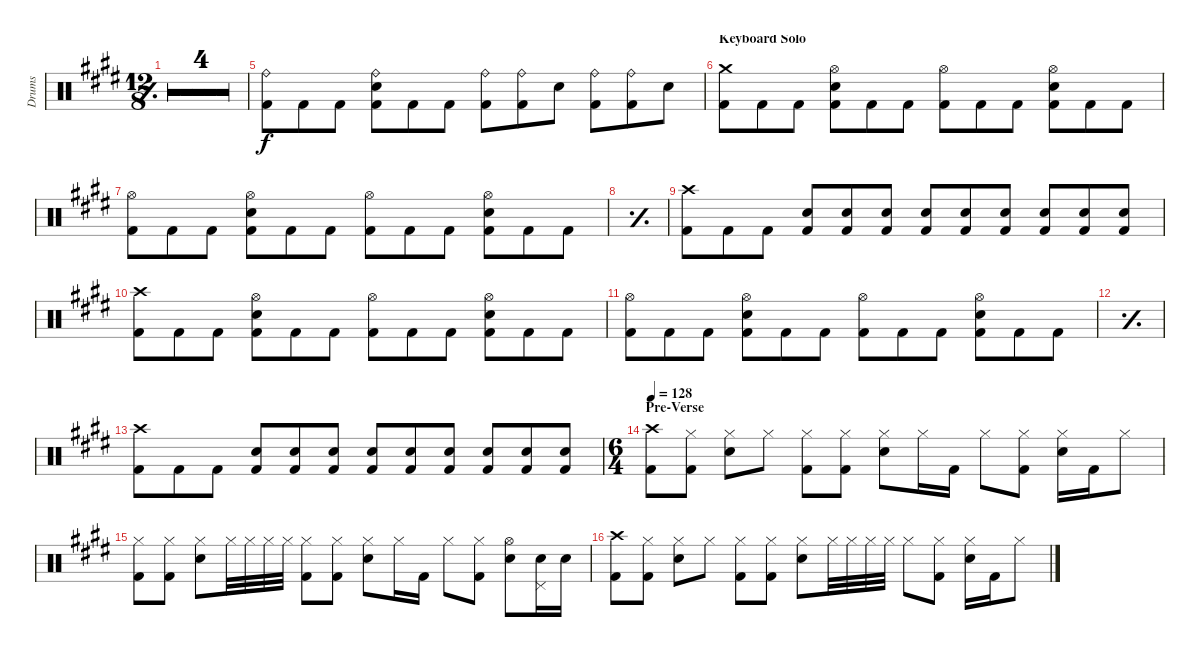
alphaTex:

\defaultSystemsLayout 4
\bracketExtendMode groupsimilarinstruments
\otherSystemsTrackNameOrientation horizontal
\track ("Drumkit" "Drums") {multiBarRest instrument percussion}
\staff {score}
\articulation defaults
\ts (12 8)
\tempo 237
\clef neutral
\simile simple
\ks e
|
|
|
|
("Ride (bell)"{acc forcenatural} "Kick (hit) 2"{acc forcenatural}).8 "Kick (hit) 2"{acc forcenatural}.8 "Kick (hit) 2"{acc forcenatural}.8 ("Snare (hit) 2"{acc forcenatural} "Kick (hit) 2"{acc forcenatural} "Ride (bell)"{acc forcenatural}).8 "Kick (hit) 2"{acc forcenatural}.8 "Kick (hit) 2"{acc forcenatural}.8 ("Ride (bell)"{acc forcenatural} "Kick (hit) 2"{acc forcenatural}).8 ("Ride (bell)"{acc forcenatural} "Kick (hit) 2"{acc forcenatural}).8 "Snare (hit) 2"{acc forcenatural}.8 ("Kick (hit) 2"{acc forcenatural} "Ride (bell)"{acc forcenatural}).8 ("Ride (bell)"{acc forcenatural} "Kick (hit) 2"{acc forcenatural}).8 "Snare (hit) 2"{acc forcenatural}.8 |
\section ("" "Keyboard Solo")
("Kick (hit) 2"{acc forcenatural} "Crash medium (hit)"{acc forcenatural}).8 "Kick (hit) 2"{acc forcenatural}.8 "Kick (hit) 2"{acc forcenatural}.8 ("Snare (hit) 2"{acc forcenatural} "Kick (hit) 2"{acc forcenatural} "Hi-Hat (open)"{acc forcenatural}).8 "Kick (hit) 2"{acc forcenatural}.8 "Kick (hit) 2"{acc forcenatural}.8 ("Hi-Hat (open)"{acc forcenatural} "Kick (hit) 2"{acc forcenatural}).8 "Kick (hit) 2"{acc forcenatural}.8 "Kick (hit) 2"{acc forcenatural}.8 ("Snare (hit) 2"{acc forcenatural} "Kick (hit) 2"{acc forcenatural} "Hi-Hat (open)"{acc forcenatural}).8 "Kick (hit) 2"{acc forcenatural}.8 "Kick (hit) 2"{acc forcenatural}.8 |
("Hi-Hat (open)"{acc forcenatural} "Kick (hit) 2"{acc forcenatural}).8 "Kick (hit) 2"{acc forcenatural}.8 "Kick (hit) 2"{acc forcenatural}.8 ("Snare (hit) 2"{acc forcenatural} "Kick (hit) 2"{acc forcenatural} "Hi-Hat (open)"{acc forcenatural}).8 "Kick (hit) 2"{acc forcenatural}.8 "Kick (hit) 2"{acc forcenatural}.8 ("Hi-Hat (open)"{acc forcenatural} "Kick (hit) 2"{acc forcenatural}).8 "Kick (hit) 2"{acc forcenatural}.8 "Kick (hit) 2"{acc forcenatural}.8 ("Snare (hit) 2"{acc forcenatural} "Kick (hit) 2"{acc forcenatural} "Hi-Hat (open)"{acc forcenatural}).8 "Kick (hit) 2"{acc forcenatural}.8 "Kick (hit) 2"{acc forcenatural}.8 |
\simile simple
|
\simile none
("Crash high (hit)"{acc forcenatural} "Kick (hit) 2"{acc forcenatural}).8 "Kick (hit) 2"{acc forcenatural}.8 "Kick (hit) 2"{acc forcenatural}.8 ("Snare (hit) 2"{acc forcenatural} "Kick (hit) 2"{acc forcenatural}).8 ("Kick (hit) 2"{acc forcenatural} "Snare (hit) 2"{acc forcenatural}).8 ("Kick (hit) 2"{acc forcenatural} "Snare (hit) 2"{acc forcenatural}).8 ("Snare (hit) 2"{acc forcenatural} "Kick (hit) 2"{acc forcenatural}).8 ("Snare (hit) 2"{acc forcenatural} "Kick (hit) 2"{acc forcenatural}).8 ("Snare (hit) 2"{acc forcenatural} "Kick (hit) 2"{acc forcenatural}).8 ("Snare (hit) 2"{acc forcenatural} "Kick (hit) 2"{acc forcenatural}).8 ("Snare (hit) 2"{acc forcenatural} "Kick (hit) 2"{acc forcenatural}).8 ("Snare (hit) 2"{acc forcenatural} "Kick (hit) 2"{acc forcenatural}).8 |
("Kick (hit) 2"{acc forcenatural} "Crash high (hit)"{acc forcenatural}).8 "Kick (hit) 2"{acc forcenatural}.8 "Kick (hit) 2"{acc forcenatural}.8 ("Snare (hit) 2"{acc forcenatural} "Kick (hit) 2"{acc forcenatural} "Hi-Hat (open)"{acc forcenatural}).8 "Kick (hit) 2"{acc forcenatural}.8 "Kick (hit) 2"{acc forcenatural}.8 ("Hi-Hat (open)"{acc forcenatural} "Kick (hit) 2"{acc forcenatural}).8 "Kick (hit) 2"{acc forcenatural}.8 "Kick (hit) 2"{acc forcenatural}.8 ("Snare (hit) 2"{acc forcenatural} "Kick (hit) 2"{acc forcenatural} "Hi-Hat (open)"{acc forcenatural}).8 "Kick (hit) 2"{acc forcenatural}.8 "Kick (hit) 2"{acc forcenatural}.8 |
("Hi-Hat (open)"{acc forcenatural} "Kick (hit) 2"{acc forcenatural}).8 "Kick (hit) 2"{acc forcenatural}.8 "Kick (hit) 2"{acc forcenatural}.8 ("Snare (hit) 2"{acc forcenatural} "Kick (hit) 2"{acc forcenatural} "Hi-Hat (open)"{acc forcenatural}).8 "Kick (hit) 2"{acc forcenatural}.8 "Kick (hit) 2"{acc forcenatural}.8 ("Hi-Hat (open)"{acc forcenatural} "Kick (hit) 2"{acc forcenatural}).8 "Kick (hit) 2"{acc forcenatural}.8 "Kick (hit) 2"{acc forcenatural}.8 ("Snare (hit) 2"{acc forcenatural} "Kick (hit) 2"{acc forcenatural} "Hi-Hat (open)"{acc forcenatural}).8 "Kick (hit) 2"{acc forcenatural}.8 "Kick (hit) 2"{acc forcenatural}.8 |
\simile simple
|
\simile none
("Crash high (hit)"{acc forcenatural} "Kick (hit) 2"{acc forcenatural}).8 "Kick (hit) 2"{acc forcenatural}.8 "Kick (hit) 2"{acc forcenatural}.8 ("Snare (hit) 2"{acc forcenatural} "Kick (hit) 2"{acc forcenatural}).8 ("Kick (hit) 2"{acc forcenatural} "Snare (hit) 2"{acc forcenatural}).8 ("Kick (hit) 2"{acc forcenatural} "Snare (hit) 2"{acc forcenatural}).8 ("Snare (hit) 2"{acc forcenatural} "Kick (hit) 2"{acc forcenatural}).8 ("Snare (hit) 2"{acc forcenatural} "Kick (hit) 2"{acc forcenatural}).8 ("Snare (hit) 2"{acc forcenatural} "Kick (hit) 2"{acc forcenatural}).8 ("Snare (hit) 2"{acc forcenatural} "Kick (hit) 2"{acc forcenatural}).8 ("Snare (hit) 2"{acc forcenatural} "Kick (hit) 2"{acc forcenatural}).8 ("Snare (hit) 2"{acc forcenatural} "Kick (hit) 2"{acc forcenatural}).8 |
\ts (6 4)
\section ("" "Pre-Verse")
\tempo 128
("Kick (hit) 2"{acc forcenatural} "Crash high (hit)"{acc forcenatural}).8 ("Kick (hit) 2"{acc forcenatural} "Hi-Hat (closed)"{acc forcenatural}).8 ("Snare (hit) 2"{acc forcenatural} "Hi-Hat (closed)"{acc forcenatural}).8 "Hi-Hat (closed)"{acc forcenatural}.8 ("Hi-Hat (closed)"{acc forcenatural} "Kick (hit) 2"{acc forcenatural}).8 ("Kick (hit) 2"{acc forcenatural} "Hi-Hat (closed)"{acc forcenatural}).8 ("Hi-Hat (closed)"{acc forcenatural} "Snare (hit) 2"{acc forcenatural}).8 "Hi-Hat (closed)"{acc forcenatural}.16 "Kick (hit) 2"{acc forcenatural}.16 "Hi-Hat (closed)"{acc forcenatural}.8 ("Kick (hit) 2"{acc forcenatural} "Hi-Hat (closed)"{acc forcenatural}).8 ("Hi-Hat (closed)"{acc forcenatural} "Snare (hit) 2"{acc forcenatural}).16 "Kick (hit) 2"{acc forcenatural}.16 "Hi-Hat (closed)"{acc forcenatural}.8 |
("Hi-Hat (closed)"{acc forcenatural} "Kick (hit) 2"{acc forcenatural}).8 ("Kick (hit) 2"{acc forcenatural} "Hi-Hat (closed)"{acc forcenatural}).8 ("Snare (hit) 2"{acc forcenatural} "Hi-Hat (closed)"{acc forcenatural}).8 "Hi-Hat (closed)"{acc forcenatural}.32 "Hi-Hat (closed)"{acc forcenatural}.32 "Hi-Hat (closed)"{acc forcenatural}.32 "Hi-Hat (closed)"{acc forcenatural}.32 ("Hi-Hat (closed)"{acc forcenatural} "Kick (hit) 2"{acc forcenatural}).8 ("Kick (hit) 2"{acc forcenatural} "Hi-Hat (closed)"{acc forcenatural}).8 ("Hi-Hat (closed)"{acc forcenatural} "Snare (hit) 2"{acc forcenatural}).8 "Hi-Hat (closed)"{acc forcenatural}.16 "Kick (hit) 2"{acc forcenatural}.16 "Hi-Hat (closed)"{acc forcenatural}.8 ("Kick (hit) 2"{acc forcenatural} "Hi-Hat (closed)"{acc forcenatural}).8 ("Hi-Hat (open)"{acc forcenatural} "Snare (hit) 2"{acc forcenatural}).8 ("Snare (hit) 2"{acc forcenatural} "Pedal Hi-Hat (hit)"{acc forcenatural}).16 "Snare (hit) 2"{acc forcenatural}.16 |
("Kick (hit) 2"{acc forcenatural} "Crash high (hit)"{acc forcenatural}).8 ("Hi-Hat (closed)"{acc forcenatural} "Kick (hit) 2"{acc forcenatural}).8 ("Hi-Hat (closed)"{acc forcenatural} "Snare (hit) 2"{acc forcenatural}).8 "Hi-Hat (closed)"{acc forcenatural}.8 ("Hi-Hat (closed)"{acc forcenatural} "Kick (hit) 2"{acc forcenatural}).8 ("Hi-Hat (closed)"{acc forcenatural} "Kick (hit) 2"{acc forcenatural}).8 ("Hi-Hat (closed)"{acc forcenatural} "Snare (hit) 2"{acc forcenatural}).8 "Hi-Hat (closed)"{acc forcenatural}.32 "Hi-Hat (closed)"{acc forcenatural}.32 "Hi-Hat (closed)"{acc forcenatural}.32 "Hi-Hat (closed)"{acc forcenatural}.32 "Hi-Hat (closed)"{acc forcenatural}.8 ("Hi-Hat (closed)"{acc forcenatural} "Kick (hit) 2"{acc forcenatural}).8 ("Hi-Hat (closed)"{acc forcenatural} "Snare (hit) 2"{acc forcenatural}).16 "Kick (hit) 2"{acc forcenatural}.16 "Hi-Hat (closed)"{acc forcenatural}.8
